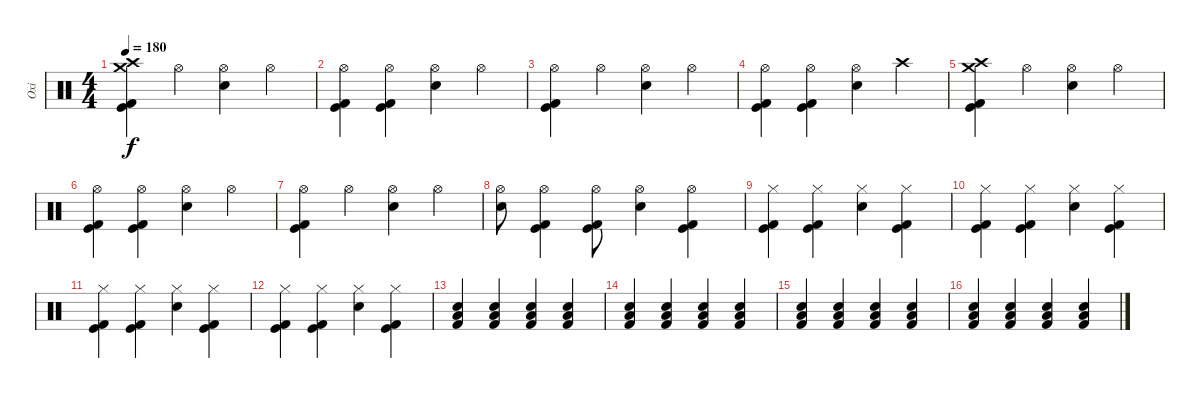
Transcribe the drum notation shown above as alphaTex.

\track ("Oxi" "Oxi") {instrument percussion}
\staff {score}
\articulation defaults
\ts (4 4)
\tempo 180
\clef neutral
\ks c
("Crash medium (hit)" "Crash high (hit)" "Kick (hit) 2" "Kick (hit)").4{dy f} "Hi-Hat (open)".4 ("Hi-Hat (open)" "Electric Snare (hit)").4 "Hi-Hat (open)".4 |
("Hi-Hat (open)" "Kick (hit) 2" "Kick (hit)").4 ("Hi-Hat (open)" "Kick (hit) 2" "Kick (hit)").4 ("Hi-Hat (open)" "Electric Snare (hit)").4 "Hi-Hat (open)".4 |
("Hi-Hat (open)" "Kick (hit) 2" "Kick (hit)").4 "Hi-Hat (open)".4 ("Hi-Hat (open)" "Electric Snare (hit)").4 "Hi-Hat (open)".4 |
("Hi-Hat (open)" "Kick (hit) 2" "Kick (hit)").4 ("Hi-Hat (open)" "Kick (hit) 2" "Kick (hit)").4 ("Hi-Hat (open)" "Electric Snare (hit)").4 "Crash high (hit)".4 |
("Crash medium (hit)" "Crash high (hit)" "Kick (hit) 2" "Kick (hit)").4 "Hi-Hat (open)".4 ("Hi-Hat (open)" "Electric Snare (hit)").4 "Hi-Hat (open)".4 |
("Hi-Hat (open)" "Kick (hit) 2" "Kick (hit)").4 ("Hi-Hat (open)" "Kick (hit) 2" "Kick (hit)").4 ("Hi-Hat (open)" "Electric Snare (hit)").4 "Hi-Hat (open)".4 |
("Hi-Hat (open)" "Kick (hit) 2" "Kick (hit)").4 "Hi-Hat (open)".4 ("Hi-Hat (open)" "Electric Snare (hit)").4 "Hi-Hat (open)".4 |
("Hi-Hat (open)" "Electric Snare (hit)").8 ("Hi-Hat (open)" "Kick (hit) 2" "Kick (hit)").4 ("Hi-Hat (open)" "Kick (hit) 2" "Kick (hit)").8 ("Hi-Hat (open)" "Electric Snare (hit)").4 ("Hi-Hat (open)" "Kick (hit) 2" "Kick (hit)").4 |
("Hi-Hat (closed)" "Kick (hit) 2" "Kick (hit)").4 ("Hi-Hat (closed)" "Kick (hit) 2" "Kick (hit)").4 ("Hi-Hat (closed)" "Electric Snare (hit)").4 ("Hi-Hat (closed)" "Kick (hit) 2" "Kick (hit)").4 |
("Hi-Hat (closed)" "Kick (hit) 2" "Kick (hit)").4 ("Hi-Hat (closed)" "Kick (hit) 2" "Kick (hit)").4 ("Hi-Hat (closed)" "Electric Snare (hit)").4 ("Hi-Hat (closed)" "Kick (hit) 2" "Kick (hit)").4 |
("Hi-Hat (closed)" "Kick (hit) 2" "Kick (hit)").4 ("Hi-Hat (closed)" "Kick (hit) 2" "Kick (hit)").4 ("Hi-Hat (closed)" "Electric Snare (hit)").4 ("Hi-Hat (closed)" "Kick (hit) 2" "Kick (hit)").4 |
("Hi-Hat (closed)" "Kick (hit) 2" "Kick (hit)").4 ("Hi-Hat (closed)" "Kick (hit) 2" "Kick (hit)").4 ("Hi-Hat (closed)" "Electric Snare (hit)").4 ("Hi-Hat (closed)" "Kick (hit) 2" "Kick (hit)").4 |
("Electric Snare (hit)" "Low Tom (hit)" "Kick (hit) 2").4{volume 1} ("Electric Snare (hit)" "Low Tom (hit)" "Kick (hit) 2").4 ("Electric Snare (hit)" "Low Tom (hit)" "Kick (hit) 2").4{volume 2} ("Electric Snare (hit)" "Low Tom (hit)" "Kick (hit) 2").4 |
("Electric Snare (hit)" "Low Tom (hit)" "Kick (hit) 2").4{volume 3} ("Electric Snare (hit)" "Low Tom (hit)" "Kick (hit) 2").4 ("Electric Snare (hit)" "Low Tom (hit)" "Kick (hit) 2").4{volume 4} ("Electric Snare (hit)" "Low Tom (hit)" "Kick (hit) 2").4 |
("Electric Snare (hit)" "Low Tom (hit)" "Kick (hit) 2").4{volume 6} ("Electric Snare (hit)" "Low Tom (hit)" "Kick (hit) 2").4{volume 7} ("Electric Snare (hit)" "Low Tom (hit)" "Kick (hit) 2").4{volume 8} ("Electric Snare (hit)" "Low Tom (hit)" "Kick (hit) 2").4{volume 9} |
("Electric Snare (hit)" "Low Tom (hit)" "Kick (hit) 2").4{volume 13} ("Electric Snare (hit)" "Low Tom (hit)" "Kick (hit) 2").4{volume 12} ("Electric Snare (hit)" "Low Tom (hit)" "Kick (hit) 2").4{volume 14} ("Electric Snare (hit)" "Low Tom (hit)" "Kick (hit) 2").4{volume 16}
